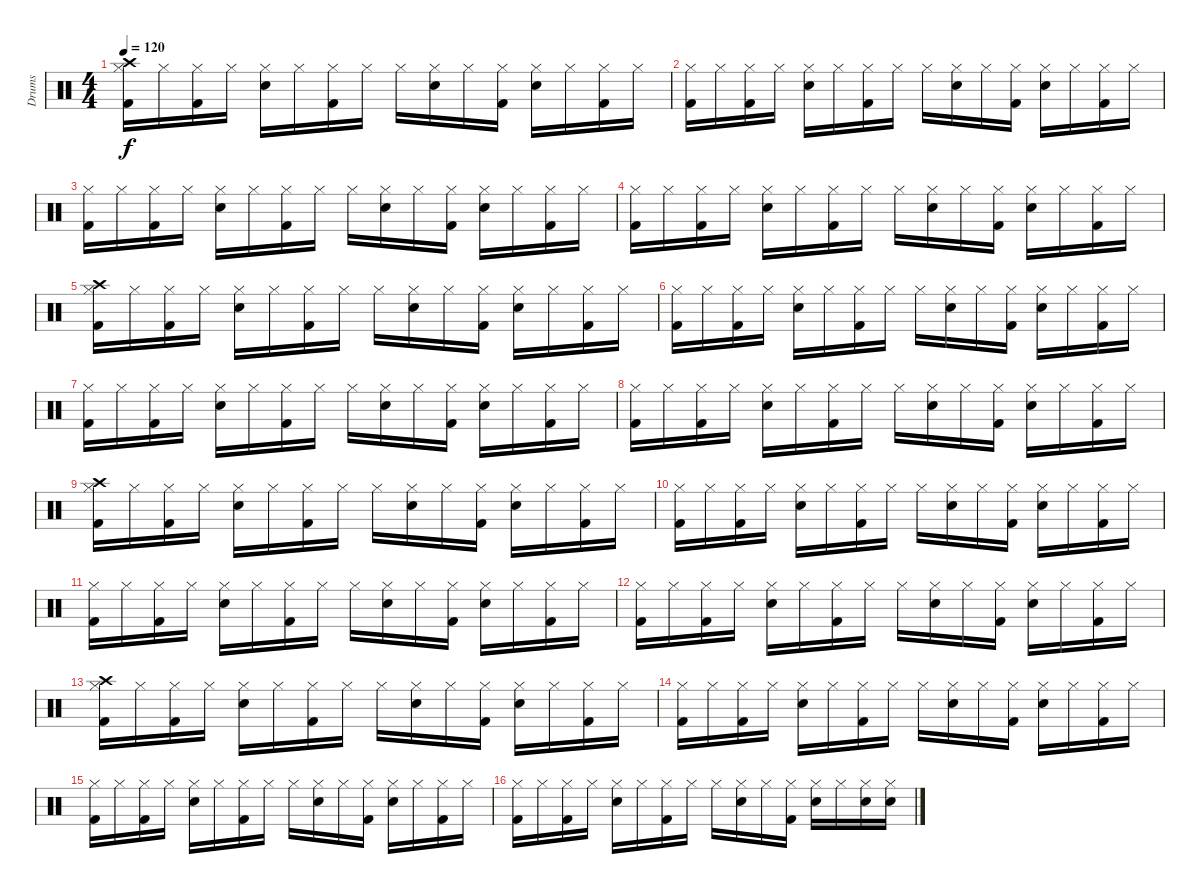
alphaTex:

\track ("Drums" "Drums") {instrument percussion}
\staff {score}
\articulation defaults
\ts (4 4)
\tempo 120
\clef neutral
\ks c
("Hi-Hat (closed)" "Crash high (hit)" "Kick (hit) 2").16{dy f} "Hi-Hat (closed)".16 ("Hi-Hat (closed)" "Kick (hit) 2").16 "Hi-Hat (closed)".16 ("Hi-Hat (closed)" "Electric Snare (hit)").16 "Hi-Hat (closed)".16 ("Hi-Hat (closed)" "Kick (hit) 2").16 "Hi-Hat (closed)".16 "Hi-Hat (closed)".16 ("Hi-Hat (closed)" "Electric Snare (hit)").16 "Hi-Hat (closed)".16 ("Hi-Hat (closed)" "Kick (hit) 2").16 ("Hi-Hat (closed)" "Electric Snare (hit)").16 "Hi-Hat (closed)".16 ("Hi-Hat (closed)" "Kick (hit) 2").16 "Hi-Hat (closed)".16 |
("Hi-Hat (closed)" "Kick (hit) 2").16 "Hi-Hat (closed)".16 ("Hi-Hat (closed)" "Kick (hit) 2").16 "Hi-Hat (closed)".16 ("Hi-Hat (closed)" "Electric Snare (hit)").16 "Hi-Hat (closed)".16 ("Hi-Hat (closed)" "Kick (hit) 2").16 "Hi-Hat (closed)".16 "Hi-Hat (closed)".16 ("Hi-Hat (closed)" "Electric Snare (hit)").16 "Hi-Hat (closed)".16 ("Hi-Hat (closed)" "Kick (hit) 2").16 ("Hi-Hat (closed)" "Electric Snare (hit)").16 "Hi-Hat (closed)".16 ("Hi-Hat (closed)" "Kick (hit) 2").16 "Hi-Hat (closed)".16 |
("Hi-Hat (closed)" "Kick (hit) 2").16 "Hi-Hat (closed)".16 ("Hi-Hat (closed)" "Kick (hit) 2").16 "Hi-Hat (closed)".16 ("Hi-Hat (closed)" "Electric Snare (hit)").16 "Hi-Hat (closed)".16 ("Hi-Hat (closed)" "Kick (hit) 2").16 "Hi-Hat (closed)".16 "Hi-Hat (closed)".16 ("Hi-Hat (closed)" "Electric Snare (hit)").16 "Hi-Hat (closed)".16 ("Hi-Hat (closed)" "Kick (hit) 2").16 ("Hi-Hat (closed)" "Electric Snare (hit)").16 "Hi-Hat (closed)".16 ("Hi-Hat (closed)" "Kick (hit) 2").16 "Hi-Hat (closed)".16 |
("Hi-Hat (closed)" "Kick (hit) 2").16 "Hi-Hat (closed)".16 ("Hi-Hat (closed)" "Kick (hit) 2").16 "Hi-Hat (closed)".16 ("Hi-Hat (closed)" "Electric Snare (hit)").16 "Hi-Hat (closed)".16 ("Hi-Hat (closed)" "Kick (hit) 2").16 "Hi-Hat (closed)".16 "Hi-Hat (closed)".16 ("Hi-Hat (closed)" "Electric Snare (hit)").16 "Hi-Hat (closed)".16 ("Hi-Hat (closed)" "Kick (hit) 2").16 ("Hi-Hat (closed)" "Electric Snare (hit)").16 "Hi-Hat (closed)".16 ("Hi-Hat (closed)" "Kick (hit) 2").16 "Hi-Hat (closed)".16 |
("Hi-Hat (closed)" "Crash high (hit)" "Kick (hit) 2").16 "Hi-Hat (closed)".16 ("Hi-Hat (closed)" "Kick (hit) 2").16 "Hi-Hat (closed)".16 ("Hi-Hat (closed)" "Electric Snare (hit)").16 "Hi-Hat (closed)".16 ("Hi-Hat (closed)" "Kick (hit) 2").16 "Hi-Hat (closed)".16 "Hi-Hat (closed)".16 ("Hi-Hat (closed)" "Electric Snare (hit)").16 "Hi-Hat (closed)".16 ("Hi-Hat (closed)" "Kick (hit) 2").16 ("Hi-Hat (closed)" "Electric Snare (hit)").16 "Hi-Hat (closed)".16 ("Hi-Hat (closed)" "Kick (hit) 2").16 "Hi-Hat (closed)".16 |
("Hi-Hat (closed)" "Kick (hit) 2").16 "Hi-Hat (closed)".16 ("Hi-Hat (closed)" "Kick (hit) 2").16 "Hi-Hat (closed)".16 ("Hi-Hat (closed)" "Electric Snare (hit)").16 "Hi-Hat (closed)".16 ("Hi-Hat (closed)" "Kick (hit) 2").16 "Hi-Hat (closed)".16 "Hi-Hat (closed)".16 ("Hi-Hat (closed)" "Electric Snare (hit)").16 "Hi-Hat (closed)".16 ("Hi-Hat (closed)" "Kick (hit) 2").16 ("Hi-Hat (closed)" "Electric Snare (hit)").16 "Hi-Hat (closed)".16 ("Hi-Hat (closed)" "Kick (hit) 2").16 "Hi-Hat (closed)".16 |
("Hi-Hat (closed)" "Kick (hit) 2").16 "Hi-Hat (closed)".16 ("Hi-Hat (closed)" "Kick (hit) 2").16 "Hi-Hat (closed)".16 ("Hi-Hat (closed)" "Electric Snare (hit)").16 "Hi-Hat (closed)".16 ("Hi-Hat (closed)" "Kick (hit) 2").16 "Hi-Hat (closed)".16 "Hi-Hat (closed)".16 ("Hi-Hat (closed)" "Electric Snare (hit)").16 "Hi-Hat (closed)".16 ("Hi-Hat (closed)" "Kick (hit) 2").16 ("Hi-Hat (closed)" "Electric Snare (hit)").16 "Hi-Hat (closed)".16 ("Hi-Hat (closed)" "Kick (hit) 2").16 "Hi-Hat (closed)".16 |
("Hi-Hat (closed)" "Kick (hit) 2").16 "Hi-Hat (closed)".16 ("Hi-Hat (closed)" "Kick (hit) 2").16 "Hi-Hat (closed)".16 ("Hi-Hat (closed)" "Electric Snare (hit)").16 "Hi-Hat (closed)".16 ("Hi-Hat (closed)" "Kick (hit) 2").16 "Hi-Hat (closed)".16 "Hi-Hat (closed)".16 ("Hi-Hat (closed)" "Electric Snare (hit)").16 "Hi-Hat (closed)".16 ("Hi-Hat (closed)" "Kick (hit) 2").16 ("Hi-Hat (closed)" "Electric Snare (hit)").16 "Hi-Hat (closed)".16 ("Hi-Hat (closed)" "Kick (hit) 2").16 "Hi-Hat (closed)".16 |
("Hi-Hat (closed)" "Crash high (hit)" "Kick (hit) 2").16 "Hi-Hat (closed)".16 ("Hi-Hat (closed)" "Kick (hit) 2").16 "Hi-Hat (closed)".16 ("Hi-Hat (closed)" "Electric Snare (hit)").16 "Hi-Hat (closed)".16 ("Hi-Hat (closed)" "Kick (hit) 2").16 "Hi-Hat (closed)".16 "Hi-Hat (closed)".16 ("Hi-Hat (closed)" "Electric Snare (hit)").16 "Hi-Hat (closed)".16 ("Hi-Hat (closed)" "Kick (hit) 2").16 ("Hi-Hat (closed)" "Electric Snare (hit)").16 "Hi-Hat (closed)".16 ("Hi-Hat (closed)" "Kick (hit) 2").16 "Hi-Hat (closed)".16 |
("Hi-Hat (closed)" "Kick (hit) 2").16 "Hi-Hat (closed)".16 ("Hi-Hat (closed)" "Kick (hit) 2").16 "Hi-Hat (closed)".16 ("Hi-Hat (closed)" "Electric Snare (hit)").16 "Hi-Hat (closed)".16 ("Hi-Hat (closed)" "Kick (hit) 2").16 "Hi-Hat (closed)".16 "Hi-Hat (closed)".16 ("Hi-Hat (closed)" "Electric Snare (hit)").16 "Hi-Hat (closed)".16 ("Hi-Hat (closed)" "Kick (hit) 2").16 ("Hi-Hat (closed)" "Electric Snare (hit)").16 "Hi-Hat (closed)".16 ("Hi-Hat (closed)" "Kick (hit) 2").16 "Hi-Hat (closed)".16 |
("Hi-Hat (closed)" "Kick (hit) 2").16 "Hi-Hat (closed)".16 ("Hi-Hat (closed)" "Kick (hit) 2").16 "Hi-Hat (closed)".16 ("Hi-Hat (closed)" "Electric Snare (hit)").16 "Hi-Hat (closed)".16 ("Hi-Hat (closed)" "Kick (hit) 2").16 "Hi-Hat (closed)".16 "Hi-Hat (closed)".16 ("Hi-Hat (closed)" "Electric Snare (hit)").16 "Hi-Hat (closed)".16 ("Hi-Hat (closed)" "Kick (hit) 2").16 ("Hi-Hat (closed)" "Electric Snare (hit)").16 "Hi-Hat (closed)".16 ("Hi-Hat (closed)" "Kick (hit) 2").16 "Hi-Hat (closed)".16 |
("Hi-Hat (closed)" "Kick (hit) 2").16 "Hi-Hat (closed)".16 ("Hi-Hat (closed)" "Kick (hit) 2").16 "Hi-Hat (closed)".16 ("Hi-Hat (closed)" "Electric Snare (hit)").16 "Hi-Hat (closed)".16 ("Hi-Hat (closed)" "Kick (hit) 2").16 "Hi-Hat (closed)".16 "Hi-Hat (closed)".16 ("Hi-Hat (closed)" "Electric Snare (hit)").16 "Hi-Hat (closed)".16 ("Hi-Hat (closed)" "Kick (hit) 2").16 ("Hi-Hat (closed)" "Electric Snare (hit)").16 "Hi-Hat (closed)".16 ("Hi-Hat (closed)" "Kick (hit) 2").16 "Hi-Hat (closed)".16 |
("Hi-Hat (closed)" "Crash high (hit)" "Kick (hit) 2").16 "Hi-Hat (closed)".16 ("Hi-Hat (closed)" "Kick (hit) 2").16 "Hi-Hat (closed)".16 ("Hi-Hat (closed)" "Electric Snare (hit)").16 "Hi-Hat (closed)".16 ("Hi-Hat (closed)" "Kick (hit) 2").16 "Hi-Hat (closed)".16 "Hi-Hat (closed)".16 ("Hi-Hat (closed)" "Electric Snare (hit)").16 "Hi-Hat (closed)".16 ("Hi-Hat (closed)" "Kick (hit) 2").16 ("Hi-Hat (closed)" "Electric Snare (hit)").16 "Hi-Hat (closed)".16 ("Hi-Hat (closed)" "Kick (hit) 2").16 "Hi-Hat (closed)".16 |
("Hi-Hat (closed)" "Kick (hit) 2").16 "Hi-Hat (closed)".16 ("Hi-Hat (closed)" "Kick (hit) 2").16 "Hi-Hat (closed)".16 ("Hi-Hat (closed)" "Electric Snare (hit)").16 "Hi-Hat (closed)".16 ("Hi-Hat (closed)" "Kick (hit) 2").16 "Hi-Hat (closed)".16 "Hi-Hat (closed)".16 ("Hi-Hat (closed)" "Electric Snare (hit)").16 "Hi-Hat (closed)".16 ("Hi-Hat (closed)" "Kick (hit) 2").16 ("Hi-Hat (closed)" "Electric Snare (hit)").16 "Hi-Hat (closed)".16 ("Hi-Hat (closed)" "Kick (hit) 2").16 "Hi-Hat (closed)".16 |
("Hi-Hat (closed)" "Kick (hit) 2").16 "Hi-Hat (closed)".16 ("Hi-Hat (closed)" "Kick (hit) 2").16 "Hi-Hat (closed)".16 ("Hi-Hat (closed)" "Electric Snare (hit)").16 "Hi-Hat (closed)".16 ("Hi-Hat (closed)" "Kick (hit) 2").16 "Hi-Hat (closed)".16 "Hi-Hat (closed)".16 ("Hi-Hat (closed)" "Electric Snare (hit)").16 "Hi-Hat (closed)".16 ("Hi-Hat (closed)" "Kick (hit) 2").16 ("Hi-Hat (closed)" "Electric Snare (hit)").16 "Hi-Hat (closed)".16 ("Hi-Hat (closed)" "Kick (hit) 2").16 "Hi-Hat (closed)".16 |
("Hi-Hat (closed)" "Kick (hit) 2").16 "Hi-Hat (closed)".16 ("Hi-Hat (closed)" "Kick (hit) 2").16 "Hi-Hat (closed)".16 ("Hi-Hat (closed)" "Electric Snare (hit)").16 "Hi-Hat (closed)".16 ("Hi-Hat (closed)" "Kick (hit) 2").16 "Hi-Hat (closed)".16 "Hi-Hat (closed)".16 ("Hi-Hat (closed)" "Electric Snare (hit)").16 "Hi-Hat (closed)".16 ("Hi-Hat (closed)" "Kick (hit) 2").16 ("Hi-Hat (closed)" "Electric Snare (hit)").16 "Hi-Hat (closed)".16 ("Hi-Hat (closed)" "Electric Snare (hit)").16 ("Hi-Hat (closed)" "Electric Snare (hit)").16
